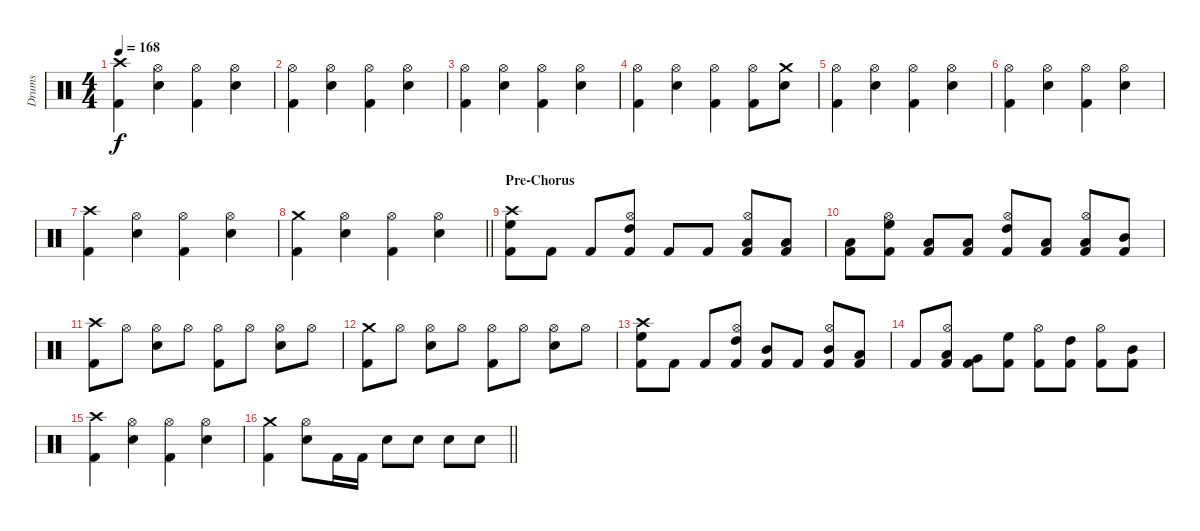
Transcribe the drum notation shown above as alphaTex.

\track ("Drums" "Drums") {instrument percussion}
\staff {score}
\articulation defaults
\ts (4 4)
\tempo 168
\clef neutral
\ks c
("Crash high (hit)" "Kick (hit) 2").4{dy f} ("Hi-Hat (open)" "Snare (hit) 2").4 ("Hi-Hat (open)" "Kick (hit) 2").4 ("Hi-Hat (open)" "Snare (hit) 2").4 |
("Hi-Hat (open)" "Kick (hit) 2").4 ("Hi-Hat (open)" "Snare (hit) 2").4 ("Hi-Hat (open)" "Kick (hit) 2").4 ("Hi-Hat (open)" "Snare (hit) 2").4 |
("Hi-Hat (open)" "Kick (hit) 2").4 ("Hi-Hat (open)" "Snare (hit) 2").4 ("Hi-Hat (open)" "Kick (hit) 2").4 ("Hi-Hat (open)" "Snare (hit) 2").4 |
("Hi-Hat (open)" "Kick (hit) 2").4 ("Hi-Hat (open)" "Snare (hit) 2").4 ("Hi-Hat (open)" "Kick (hit) 2").4 ("Hi-Hat (open)" "Kick (hit) 2").8 ("Crash medium (hit)" "Snare (hit) 2").8 |
("Hi-Hat (open)" "Kick (hit) 2").4 ("Hi-Hat (open)" "Snare (hit) 2").4 ("Hi-Hat (open)" "Kick (hit) 2").4 ("Hi-Hat (open)" "Snare (hit) 2").4 |
("Hi-Hat (open)" "Kick (hit) 2").4 ("Hi-Hat (open)" "Snare (hit) 2").4 ("Hi-Hat (open)" "Kick (hit) 2").4 ("Hi-Hat (open)" "Snare (hit) 2").4 |
("Crash high (hit)" "Kick (hit) 2").4 ("Hi-Hat (open)" "Snare (hit) 2").4 ("Hi-Hat (open)" "Kick (hit) 2").4 ("Hi-Hat (open)" "Snare (hit) 2").4 |
\barLineRight lightlight
("Crash medium (hit)" "Kick (hit) 2").4 ("Hi-Hat (open)" "Snare (hit) 2").4 ("Hi-Hat (open)" "Kick (hit) 2").4 ("Hi-Hat (open)" "Snare (hit) 2").4 |
\section ("" "Pre-Chorus")
("Crash high (hit)" "High Floor Tom (hit)" "Kick (hit) 2").8 "Kick (hit) 2".8 "Kick (hit) 2".8 ("Hi-Hat (open)" "High Tom (hit)" "Kick (hit) 2").8 "Kick (hit) 2".8 "Kick (hit) 2".8 ("Hi-Hat (open)" "Low Tom (hit)" "Kick (hit) 2").8 ("Low Tom (hit)" "Kick (hit) 2").8 |
("Low Tom (hit)" "Kick (hit) 2").8 ("Hi-Hat (open)" "High Floor Tom (hit)" "Kick (hit) 2").8 ("Low Tom (hit)" "Kick (hit) 2").8 ("Low Tom (hit)" "Kick (hit) 2").8 ("Hi-Hat (open)" "High Tom (hit)" "Kick (hit) 2").8 ("Low Tom (hit)" "Kick (hit) 2").8 ("Hi-Hat (open)" "Low Tom (hit)" "Kick (hit) 2").8 ("Mid Tom (hit)" "Kick (hit) 2").8 |
("Crash high (hit)" "Kick (hit) 2").8 "Hi-Hat (open)".8 ("Hi-Hat (open)" "Snare (hit) 2").8 "Hi-Hat (open)".8 ("Hi-Hat (open)" "Kick (hit) 2").8 "Hi-Hat (open)".8 ("Hi-Hat (open)" "Snare (hit) 2").8 "Hi-Hat (open)".8 |
("Crash medium (hit)" "Kick (hit) 2").8 "Hi-Hat (open)".8 ("Hi-Hat (open)" "Snare (hit) 2").8 "Hi-Hat (open)".8 ("Hi-Hat (open)" "Kick (hit) 2").8 "Hi-Hat (open)".8 ("Hi-Hat (open)" "Snare (hit) 2").8 "Hi-Hat (open)".8 |
("Crash high (hit)" "High Floor Tom (hit)" "Kick (hit) 2").8 "Kick (hit) 2".8 "Kick (hit) 2".8 ("Hi-Hat (open)" "High Tom (hit)" "Kick (hit) 2").8 ("Mid Tom (hit)" "Kick (hit) 2").8 "Kick (hit) 2".8 ("Hi-Hat (open)" "Mid Tom (hit)" "Kick (hit) 2").8 ("Low Tom (hit)" "Kick (hit) 2").8 |
"Kick (hit) 2".8 ("Hi-Hat (open)" "Low Tom (hit)" "Kick (hit) 2").8 ("Very Low Tom (hit)" "Kick (hit) 2").8 ("High Floor Tom (hit)" "Kick (hit) 2").8 ("Hi-Hat (open)" "Kick (hit) 2").8 ("High Tom (hit)" "Kick (hit) 2").8 ("Hi-Hat (open)" "Kick (hit) 2").8 ("Mid Tom (hit)" "Kick (hit) 2").8 |
("Crash high (hit)" "Kick (hit) 2").4 ("Hi-Hat (open)" "Snare (hit) 2").4 ("Hi-Hat (open)" "Kick (hit) 2").4 ("Hi-Hat (open)" "Snare (hit) 2").4 |
\barLineRight lightlight
("Crash medium (hit)" "Kick (hit) 2").4 ("Hi-Hat (open)" "Snare (hit) 2").8 "Kick (hit) 2".16 "Kick (hit) 2".16 "Snare (hit) 2".8 "Snare (hit) 2".8 "Snare (hit) 2".8 "Snare (hit) 2".8
